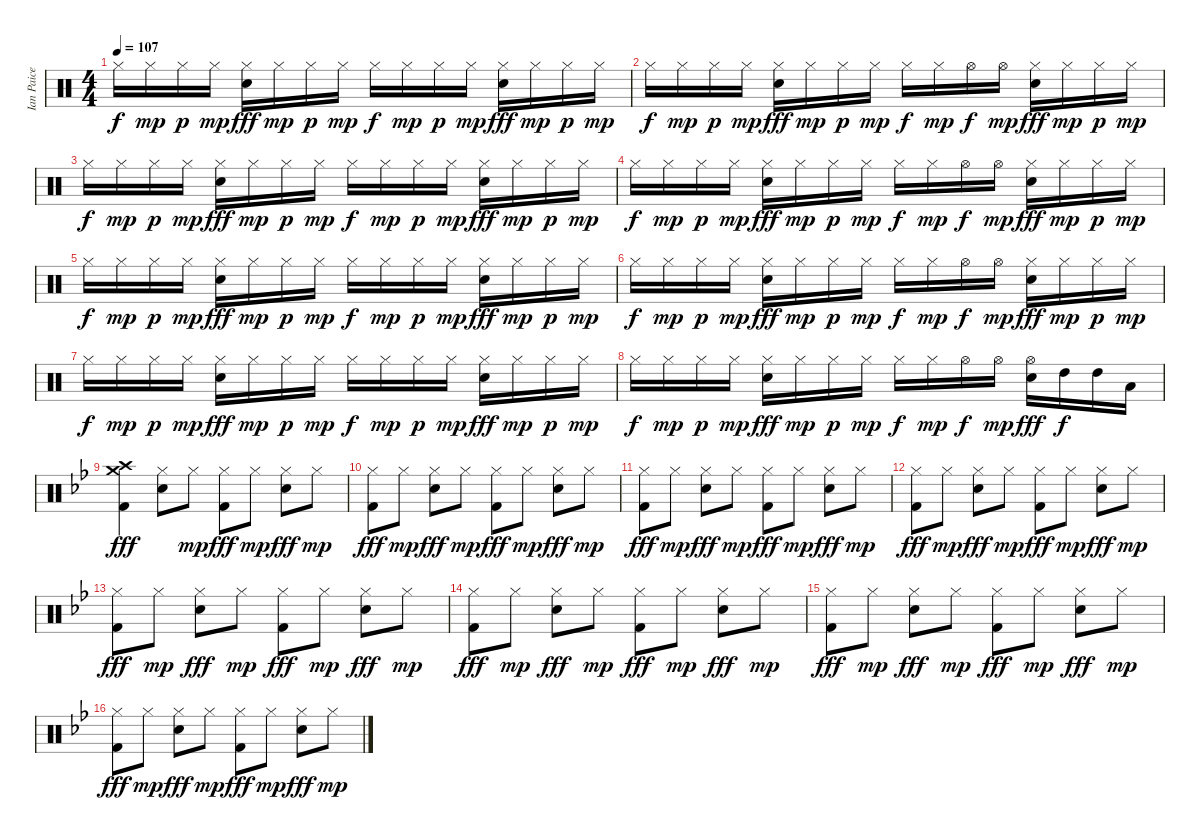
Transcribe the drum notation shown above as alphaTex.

\track ("Ian Paice" "Ian Paice") {instrument percussion}
\staff {score}
\articulation defaults
\ts (4 4)
\tempo 107
\clef neutral
\ks c "Hi-Hat (closed)".16{dy f} "Hi-Hat (closed)".16{dy mp} "Hi-Hat (closed)".16{dy p} "Hi-Hat (closed)".16{dy mp}
("Hi-Hat (closed)" "Electric Snare (hit)").16{dy fff} "Hi-Hat (closed)".16{dy mp} "Hi-Hat (closed)".16{dy p} "Hi-Hat (closed)".16{dy mp} "Hi-Hat (closed)".16{dy f} "Hi-Hat (closed)".16{dy mp} "Hi-Hat (closed)".16{dy p} "Hi-Hat (closed)".16{dy mp} ("Hi-Hat (closed)" "Electric Snare (hit)").16{dy fff} "Hi-Hat (closed)".16{dy mp} "Hi-Hat (closed)".16{dy p} "Hi-Hat (closed)".16{dy mp} |
"Hi-Hat (closed)".16{dy f} "Hi-Hat (closed)".16{dy mp} "Hi-Hat (closed)".16{dy p} "Hi-Hat (closed)".16{dy mp} ("Hi-Hat (closed)" "Electric Snare (hit)").16{dy fff} "Hi-Hat (closed)".16{dy mp} "Hi-Hat (closed)".16{dy p} "Hi-Hat (closed)".16{dy mp} "Hi-Hat (closed)".16{dy f} "Hi-Hat (closed)".16{dy mp} "Hi-Hat (open)".16{dy f} "Hi-Hat (open)".16{dy mp} ("Hi-Hat (closed)" "Electric Snare (hit)").16{dy fff} "Hi-Hat (closed)".16{dy mp} "Hi-Hat (closed)".16{dy p} "Hi-Hat (closed)".16{dy mp} |
"Hi-Hat (closed)".16{dy f} "Hi-Hat (closed)".16{dy mp} "Hi-Hat (closed)".16{dy p} "Hi-Hat (closed)".16{dy mp} ("Hi-Hat (closed)" "Electric Snare (hit)").16{dy fff} "Hi-Hat (closed)".16{dy mp} "Hi-Hat (closed)".16{dy p} "Hi-Hat (closed)".16{dy mp} "Hi-Hat (closed)".16{dy f} "Hi-Hat (closed)".16{dy mp} "Hi-Hat (closed)".16{dy p} "Hi-Hat (closed)".16{dy mp} ("Hi-Hat (closed)" "Electric Snare (hit)").16{dy fff} "Hi-Hat (closed)".16{dy mp} "Hi-Hat (closed)".16{dy p} "Hi-Hat (closed)".16{dy mp} |
"Hi-Hat (closed)".16{dy f} "Hi-Hat (closed)".16{dy mp} "Hi-Hat (closed)".16{dy p} "Hi-Hat (closed)".16{dy mp} ("Hi-Hat (closed)" "Electric Snare (hit)").16{dy fff} "Hi-Hat (closed)".16{dy mp} "Hi-Hat (closed)".16{dy p} "Hi-Hat (closed)".16{dy mp} "Hi-Hat (closed)".16{dy f} "Hi-Hat (closed)".16{dy mp} "Hi-Hat (open)".16{dy f} "Hi-Hat (open)".16{dy mp} ("Hi-Hat (closed)" "Electric Snare (hit)").16{dy fff} "Hi-Hat (closed)".16{dy mp} "Hi-Hat (closed)".16{dy p} "Hi-Hat (closed)".16{dy mp} |
"Hi-Hat (closed)".16{dy f} "Hi-Hat (closed)".16{dy mp} "Hi-Hat (closed)".16{dy p} "Hi-Hat (closed)".16{dy mp} ("Hi-Hat (closed)" "Electric Snare (hit)").16{dy fff} "Hi-Hat (closed)".16{dy mp} "Hi-Hat (closed)".16{dy p} "Hi-Hat (closed)".16{dy mp} "Hi-Hat (closed)".16{dy f} "Hi-Hat (closed)".16{dy mp} "Hi-Hat (closed)".16{dy p} "Hi-Hat (closed)".16{dy mp} ("Hi-Hat (closed)" "Electric Snare (hit)").16{dy fff} "Hi-Hat (closed)".16{dy mp} "Hi-Hat (closed)".16{dy p} "Hi-Hat (closed)".16{dy mp} |
"Hi-Hat (closed)".16{dy f} "Hi-Hat (closed)".16{dy mp} "Hi-Hat (closed)".16{dy p} "Hi-Hat (closed)".16{dy mp} ("Hi-Hat (closed)" "Electric Snare (hit)").16{dy fff} "Hi-Hat (closed)".16{dy mp} "Hi-Hat (closed)".16{dy p} "Hi-Hat (closed)".16{dy mp} "Hi-Hat (closed)".16{dy f} "Hi-Hat (closed)".16{dy mp} "Hi-Hat (open)".16{dy f} "Hi-Hat (open)".16{dy mp} ("Hi-Hat (closed)" "Electric Snare (hit)").16{dy fff} "Hi-Hat (closed)".16{dy mp} "Hi-Hat (closed)".16{dy p} "Hi-Hat (closed)".16{dy mp} |
"Hi-Hat (closed)".16{dy f} "Hi-Hat (closed)".16{dy mp} "Hi-Hat (closed)".16{dy p} "Hi-Hat (closed)".16{dy mp} ("Hi-Hat (closed)" "Electric Snare (hit)").16{dy fff} "Hi-Hat (closed)".16{dy mp} "Hi-Hat (closed)".16{dy p} "Hi-Hat (closed)".16{dy mp} "Hi-Hat (closed)".16{dy f} "Hi-Hat (closed)".16{dy mp} "Hi-Hat (closed)".16{dy p} "Hi-Hat (closed)".16{dy mp} ("Hi-Hat (closed)" "Electric Snare (hit)").16{dy fff} "Hi-Hat (closed)".16{dy mp} "Hi-Hat (closed)".16{dy p} "Hi-Hat (closed)".16{dy mp} |
"Hi-Hat (closed)".16{dy f} "Hi-Hat (closed)".16{dy mp} "Hi-Hat (closed)".16{dy p} "Hi-Hat (closed)".16{dy mp} ("Hi-Hat (closed)" "Electric Snare (hit)").16{dy fff} "Hi-Hat (closed)".16{dy mp} "Hi-Hat (closed)".16{dy p} "Hi-Hat (closed)".16{dy mp} "Hi-Hat (closed)".16{dy f} "Hi-Hat (closed)".16{dy mp} "Hi-Hat (open)".16{dy f} "Hi-Hat (open)".16{dy mp} ("Hi-Hat (open)" "Electric Snare (hit)").16{dy fff} "High Tom (hit)".16{dy f} "High Tom (hit)".16 "Low Tom (hit)".16 |
\ks bb
("Crash high (hit)" "Crash medium (hit)" "Kick (hit) 2").4{dy fff} ("Hi-Hat (closed)" "Electric Snare (hit)").8 "Hi-Hat (closed)".8{dy mp} ("Hi-Hat (closed)" "Kick (hit) 2").8{dy fff} "Hi-Hat (closed)".8{dy mp} ("Hi-Hat (closed)" "Electric Snare (hit)").8{dy fff} "Hi-Hat (closed)".8{dy mp} |
("Hi-Hat (closed)" "Kick (hit) 2").8{dy fff} "Hi-Hat (closed)".8{dy mp} ("Hi-Hat (closed)" "Electric Snare (hit)").8{dy fff} "Hi-Hat (closed)".8{dy mp} ("Hi-Hat (closed)" "Kick (hit) 2").8{dy fff} "Hi-Hat (closed)".8{dy mp} ("Hi-Hat (closed)" "Electric Snare (hit)").8{dy fff} "Hi-Hat (closed)".8{dy mp} |
("Hi-Hat (closed)" "Kick (hit) 2").8{dy fff} "Hi-Hat (closed)".8{dy mp} ("Hi-Hat (closed)" "Electric Snare (hit)").8{dy fff} "Hi-Hat (closed)".8{dy mp} ("Hi-Hat (closed)" "Kick (hit) 2").8{dy fff} "Hi-Hat (closed)".8{dy mp} ("Hi-Hat (closed)" "Electric Snare (hit)").8{dy fff} "Hi-Hat (closed)".8{dy mp} |
("Hi-Hat (closed)" "Kick (hit) 2").8{dy fff} "Hi-Hat (closed)".8{dy mp} ("Hi-Hat (closed)" "Electric Snare (hit)").8{dy fff} "Hi-Hat (closed)".8{dy mp} ("Hi-Hat (closed)" "Kick (hit) 2").8{dy fff} "Hi-Hat (closed)".8{dy mp} ("Hi-Hat (closed)" "Electric Snare (hit)").8{dy fff} "Hi-Hat (closed)".8{dy mp} |
("Hi-Hat (closed)" "Kick (hit) 2").8{dy fff} "Hi-Hat (closed)".8{dy mp} ("Hi-Hat (closed)" "Electric Snare (hit)").8{dy fff} "Hi-Hat (closed)".8{dy mp} ("Hi-Hat (closed)" "Kick (hit) 2").8{dy fff} "Hi-Hat (closed)".8{dy mp} ("Hi-Hat (closed)" "Electric Snare (hit)").8{dy fff} "Hi-Hat (closed)".8{dy mp} |
("Hi-Hat (closed)" "Kick (hit) 2").8{dy fff} "Hi-Hat (closed)".8{dy mp} ("Hi-Hat (closed)" "Electric Snare (hit)").8{dy fff} "Hi-Hat (closed)".8{dy mp} ("Hi-Hat (closed)" "Kick (hit) 2").8{dy fff} "Hi-Hat (closed)".8{dy mp} ("Hi-Hat (closed)" "Electric Snare (hit)").8{dy fff} "Hi-Hat (closed)".8{dy mp} |
("Hi-Hat (closed)" "Kick (hit) 2").8{dy fff} "Hi-Hat (closed)".8{dy mp} ("Hi-Hat (closed)" "Electric Snare (hit)").8{dy fff} "Hi-Hat (closed)".8{dy mp} ("Hi-Hat (closed)" "Kick (hit) 2").8{dy fff} "Hi-Hat (closed)".8{dy mp} ("Hi-Hat (closed)" "Electric Snare (hit)").8{dy fff} "Hi-Hat (closed)".8{dy mp} |
("Hi-Hat (closed)" "Kick (hit) 2").8{dy fff} "Hi-Hat (closed)".8{dy mp} ("Hi-Hat (closed)" "Electric Snare (hit)").8{dy fff} "Hi-Hat (closed)".8{dy mp} ("Hi-Hat (closed)" "Kick (hit) 2").8{dy fff} "Hi-Hat (closed)".8{dy mp} ("Hi-Hat (closed)" "Electric Snare (hit)").8{dy fff} "Hi-Hat (closed)".8{dy mp}
